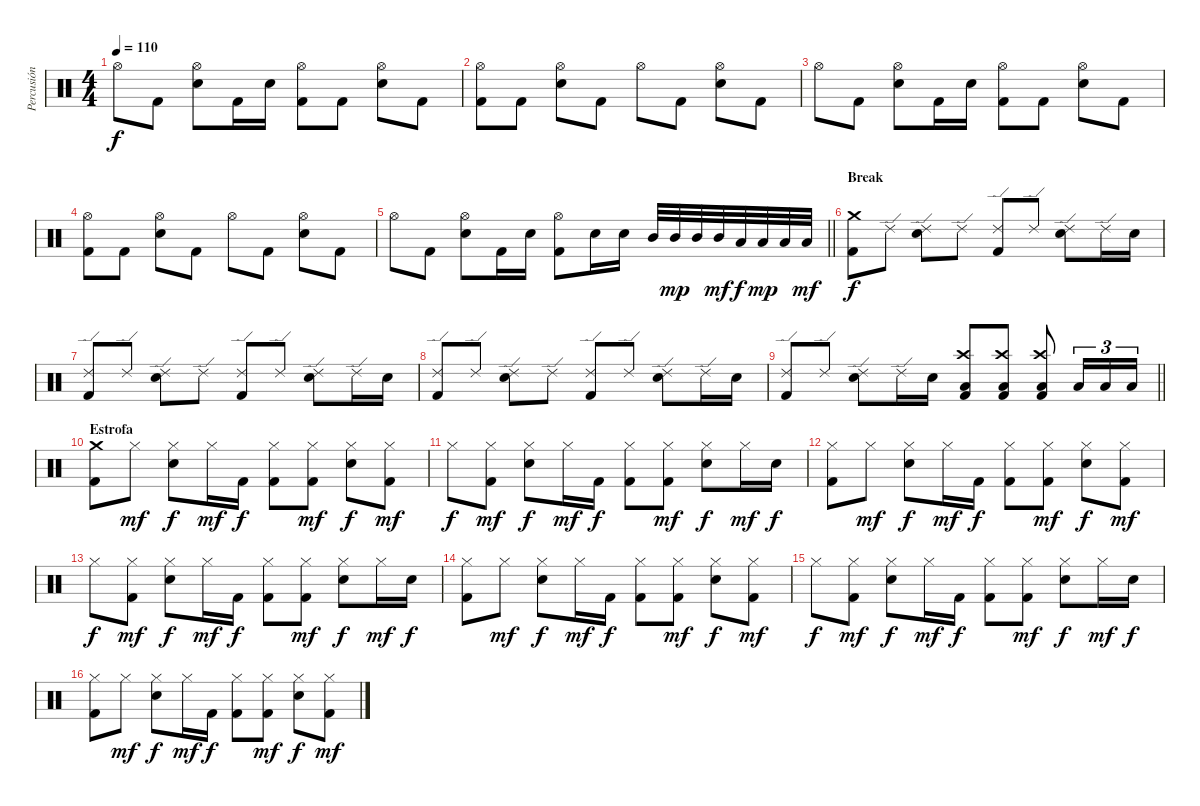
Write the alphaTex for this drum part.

\track ("Percusión" "Percusión") {instrument percussion}
\staff {score}
\articulation defaults
\ts (4 4)
\tempo 110
\clef neutral
\ks c "Hi-Hat (open)".8{dy f} "Kick (hit) 2".8
("Hi-Hat (open)" "Electric Snare (hit)").8 "Kick (hit) 2".16 "Electric Snare (hit)".16 ("Hi-Hat (open)" "Kick (hit) 2").8 "Kick (hit) 2".8 ("Hi-Hat (open)" "Electric Snare (hit)").8 "Kick (hit) 2".8 |
("Hi-Hat (open)" "Kick (hit) 2").8 "Kick (hit) 2".8 ("Hi-Hat (open)" "Electric Snare (hit)").8 "Kick (hit) 2".8 "Hi-Hat (open)".8 "Kick (hit) 2".8 ("Hi-Hat (open)" "Electric Snare (hit)").8 "Kick (hit) 2".8 |
"Hi-Hat (open)".8 "Kick (hit) 2".8 ("Hi-Hat (open)" "Electric Snare (hit)").8 "Kick (hit) 2".16 "Electric Snare (hit)".16 ("Hi-Hat (open)" "Kick (hit) 2").8 "Kick (hit) 2".8 ("Hi-Hat (open)" "Electric Snare (hit)").8 "Kick (hit) 2".8 |
("Hi-Hat (open)" "Kick (hit) 2").8 "Kick (hit) 2".8 ("Hi-Hat (open)" "Electric Snare (hit)").8 "Kick (hit) 2".8 "Hi-Hat (open)".8 "Kick (hit) 2".8 ("Hi-Hat (open)" "Electric Snare (hit)").8 "Kick (hit) 2".8 |
\barLineRight lightlight "Hi-Hat (open)".8 "Kick (hit) 2".8
("Hi-Hat (open)" "Electric Snare (hit)").8 "Kick (hit) 2".16 "Electric Snare (hit)".16 ("Hi-Hat (open)" "Kick (hit) 2").8 "Electric Snare (hit)".16 "Electric Snare (hit)".16 "Mid Tom (hit)".32 "Mid Tom (hit)".32{dy mp} "Mid Tom (hit)".32 "Mid Tom (hit)".32{dy mf} "Low Tom (hit)".32{dy f} "Low Tom (hit)".32{dy mp} "Low Tom (hit)".32 "Low Tom (hit)".32{dy mf} |
\section ("" "Break")
("Crash medium (hit)" "Kick (hit) 2").8{dy f} "Ride (edge) 2".8 ("Ride (edge) 2" "Electric Snare (hit)").8 "Ride (edge) 2".8 ("Ride (edge) 2" "Kick (hit) 2").8 "Ride (edge) 2".8 ("Ride (edge) 2" "Electric Snare (hit)").8 "Ride (edge) 2".16 "Electric Snare (hit)".16 |
("Ride (edge) 2" "Kick (hit) 2").8 "Ride (edge) 2".8 ("Ride (edge) 2" "Electric Snare (hit)").8 "Ride (edge) 2".8 ("Ride (edge) 2" "Kick (hit) 2").8 "Ride (edge) 2".8 ("Ride (edge) 2" "Electric Snare (hit)").8 "Ride (edge) 2".16 "Electric Snare (hit)".16 |
("Ride (edge) 2" "Kick (hit) 2").8 "Ride (edge) 2".8 ("Ride (edge) 2" "Electric Snare (hit)").8 "Ride (edge) 2".8 ("Ride (edge) 2" "Kick (hit) 2").8 "Ride (edge) 2".8 ("Ride (edge) 2" "Electric Snare (hit)").8 "Ride (edge) 2".16 "Electric Snare (hit)".16 |
\barLineRight lightlight
("Ride (edge) 2" "Kick (hit) 2").8 "Ride (edge) 2".8 ("Ride (edge) 2" "Electric Snare (hit)").8 "Ride (edge) 2".16 "Electric Snare (hit)".16 ("Crash high (hit)" "Low Floor Tom (hit)" "Kick (hit) 2").8 ("Crash high (hit)" "Low Floor Tom (hit)" "Kick (hit) 2").8 ("Crash high (hit)" "Low Floor Tom (hit)" "Kick (hit) 2").8 "Low Tom (hit)".16{tu (3 2)} "Low Tom (hit)".16{tu (3 2)} "Low Tom (hit)".16{tu (3 2)} |
\section ("" "Estrofa")
("Crash medium (hit)" "Kick (hit) 2").8 "Hi-Hat (closed)".8{dy mf} ("Hi-Hat (closed)" "Electric Snare (hit)").8{dy f} "Hi-Hat (closed)".16{dy mf} "Kick (hit) 2".16{dy f} ("Hi-Hat (closed)" "Kick (hit) 2").8 ("Hi-Hat (closed)" "Kick (hit) 2").8{dy mf} ("Hi-Hat (closed)" "Electric Snare (hit)").8{dy f} ("Hi-Hat (closed)" "Kick (hit) 2").8{dy mf} |
"Hi-Hat (closed)".8{dy f} ("Hi-Hat (closed)" "Kick (hit) 2").8{dy mf} ("Hi-Hat (closed)" "Electric Snare (hit)").8{dy f} "Hi-Hat (closed)".16{dy mf} "Kick (hit) 2".16{dy f} ("Hi-Hat (closed)" "Kick (hit) 2").8 ("Hi-Hat (closed)" "Kick (hit) 2").8{dy mf} ("Hi-Hat (closed)" "Electric Snare (hit)").8{dy f} "Hi-Hat (closed)".16{dy mf} "Electric Snare (hit)".16{dy f} |
("Hi-Hat (closed)" "Kick (hit) 2").8 "Hi-Hat (closed)".8{dy mf} ("Hi-Hat (closed)" "Electric Snare (hit)").8{dy f} "Hi-Hat (closed)".16{dy mf} "Kick (hit) 2".16{dy f} ("Hi-Hat (closed)" "Kick (hit) 2").8 ("Hi-Hat (closed)" "Kick (hit) 2").8{dy mf} ("Hi-Hat (closed)" "Electric Snare (hit)").8{dy f} ("Hi-Hat (closed)" "Kick (hit) 2").8{dy mf} |
"Hi-Hat (closed)".8{dy f} ("Hi-Hat (closed)" "Kick (hit) 2").8{dy mf} ("Hi-Hat (closed)" "Electric Snare (hit)").8{dy f} "Hi-Hat (closed)".16{dy mf} "Kick (hit) 2".16{dy f} ("Hi-Hat (closed)" "Kick (hit) 2").8 ("Hi-Hat (closed)" "Kick (hit) 2").8{dy mf} ("Hi-Hat (closed)" "Electric Snare (hit)").8{dy f} "Hi-Hat (closed)".16{dy mf} "Electric Snare (hit)".16{dy f} |
("Hi-Hat (closed)" "Kick (hit) 2").8 "Hi-Hat (closed)".8{dy mf} ("Hi-Hat (closed)" "Electric Snare (hit)").8{dy f} "Hi-Hat (closed)".16{dy mf} "Kick (hit) 2".16{dy f} ("Hi-Hat (closed)" "Kick (hit) 2").8 ("Hi-Hat (closed)" "Kick (hit) 2").8{dy mf} ("Hi-Hat (closed)" "Electric Snare (hit)").8{dy f} ("Hi-Hat (closed)" "Kick (hit) 2").8{dy mf} |
"Hi-Hat (closed)".8{dy f} ("Hi-Hat (closed)" "Kick (hit) 2").8{dy mf} ("Hi-Hat (closed)" "Electric Snare (hit)").8{dy f} "Hi-Hat (closed)".16{dy mf} "Kick (hit) 2".16{dy f} ("Hi-Hat (closed)" "Kick (hit) 2").8 ("Hi-Hat (closed)" "Kick (hit) 2").8{dy mf} ("Hi-Hat (closed)" "Electric Snare (hit)").8{dy f} "Hi-Hat (closed)".16{dy mf} "Electric Snare (hit)".16{dy f} |
("Hi-Hat (closed)" "Kick (hit) 2").8 "Hi-Hat (closed)".8{dy mf} ("Hi-Hat (closed)" "Electric Snare (hit)").8{dy f} "Hi-Hat (closed)".16{dy mf} "Kick (hit) 2".16{dy f} ("Hi-Hat (closed)" "Kick (hit) 2").8 ("Hi-Hat (closed)" "Kick (hit) 2").8{dy mf} ("Hi-Hat (closed)" "Electric Snare (hit)").8{dy f} ("Hi-Hat (closed)" "Kick (hit) 2").8{dy mf}
